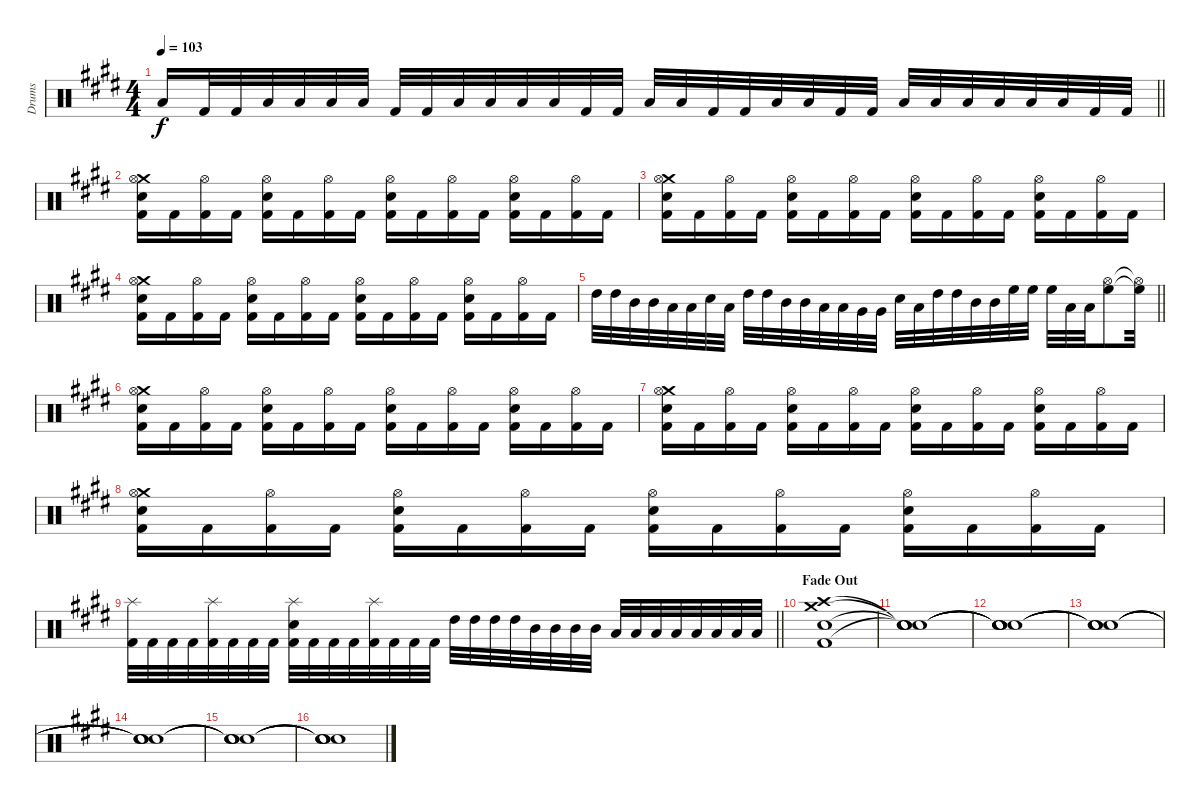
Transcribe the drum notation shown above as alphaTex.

\track ("Drums" "Drums") {instrument percussion}
\staff {score}
\articulation defaults
\ts (4 4)
\tempo 103
\clef neutral
\barLineRight lightlight
\ks c#minor "Low Tom (hit)".16{dy f} "Kick (hit) 2".32 "Kick (hit) 2".32 "Low Tom (hit)".32 "Low Tom (hit)".32 "Low Tom (hit)".32 "Low Tom (hit)".32 "Kick (hit) 2".32 "Kick (hit) 2".32 "Low Tom (hit)".32 "Low Tom (hit)".32 "Low Tom (hit)".32 "Low Tom (hit)".32 "Kick (hit) 2".32 "Kick (hit) 2".32 "Low Tom (hit)".32 "Low Tom (hit)".32 "Kick (hit) 2".32 "Kick (hit) 2".32 "Low Tom (hit)".32 "Low Tom (hit)".32 "Kick (hit) 2".32 "Kick (hit) 2".32 "Low Tom (hit)".32 "Low Tom (hit)".32 "Low Tom (hit)".32 "Low Tom (hit)".32 "Low Tom (hit)".32 "Low Tom (hit)".32 "Kick (hit) 2".32 "Kick (hit) 2".32
|
("Crash medium (hit)" "Snare (hit) 2" "Hi-Hat (open)" "Kick (hit) 2").16 "Kick (hit) 2".16 ("Hi-Hat (open)" "Kick (hit) 2").16 "Kick (hit) 2".16 ("Snare (hit) 2" "Hi-Hat (open)" "Kick (hit) 2").16 "Kick (hit) 2".16 ("Hi-Hat (open)" "Kick (hit) 2").16 "Kick (hit) 2".16 ("Snare (hit) 2" "Hi-Hat (open)" "Kick (hit) 2").16 "Kick (hit) 2".16 ("Hi-Hat (open)" "Kick (hit) 2").16 "Kick (hit) 2".16 ("Snare (hit) 2" "Hi-Hat (open)" "Kick (hit) 2").16 "Kick (hit) 2".16 ("Hi-Hat (open)" "Kick (hit) 2").16 "Kick (hit) 2".16 |
("Crash medium (hit)" "Snare (hit) 2" "Hi-Hat (open)" "Kick (hit) 2").16 "Kick (hit) 2".16 ("Hi-Hat (open)" "Kick (hit) 2").16 "Kick (hit) 2".16 ("Snare (hit) 2" "Hi-Hat (open)" "Kick (hit) 2").16 "Kick (hit) 2".16 ("Hi-Hat (open)" "Kick (hit) 2").16 "Kick (hit) 2".16 ("Snare (hit) 2" "Hi-Hat (open)" "Kick (hit) 2").16 "Kick (hit) 2".16 ("Hi-Hat (open)" "Kick (hit) 2").16 "Kick (hit) 2".16 ("Snare (hit) 2" "Hi-Hat (open)" "Kick (hit) 2").16 "Kick (hit) 2".16 ("Hi-Hat (open)" "Kick (hit) 2").16 "Kick (hit) 2".16 |
("Crash medium (hit)" "Snare (hit) 2" "Hi-Hat (open)" "Kick (hit) 2").16 "Kick (hit) 2".16 ("Hi-Hat (open)" "Kick (hit) 2").16 "Kick (hit) 2".16 ("Snare (hit) 2" "Hi-Hat (open)" "Kick (hit) 2").16 "Kick (hit) 2".16 ("Hi-Hat (open)" "Kick (hit) 2").16 "Kick (hit) 2".16 ("Snare (hit) 2" "Hi-Hat (open)" "Kick (hit) 2").16 "Kick (hit) 2".16 ("Hi-Hat (open)" "Kick (hit) 2").16 "Kick (hit) 2".16 ("Snare (hit) 2" "Hi-Hat (open)" "Kick (hit) 2").16 "Kick (hit) 2".16 ("Hi-Hat (open)" "Kick (hit) 2").16 "Kick (hit) 2".16 |
\barLineRight lightlight "High Tom (hit)".32 "High Tom (hit)".32 "Mid Tom (hit)".32 "Mid Tom (hit)".32 "Low Tom (hit)".32 "Low Tom (hit)".32 "Snare (hit) 2".32 "Low Tom (hit)".32 "High Tom (hit)".32 "High Tom (hit)".32 "Mid Tom (hit)".32 "Mid Tom (hit)".32 "Low Tom (hit)".32 "Low Tom (hit)".32 "Very Low Tom (hit)".32 "Very Low Tom (hit)".32 "Snare (hit) 2".32 "Low Tom (hit)".32 "High Tom (hit)".32 "High Tom (hit)".32 "Mid Tom (hit)".32 "Mid Tom (hit)".32 "High Floor Tom (hit)".32 "High Floor Tom (hit)".32 "High Floor Tom (hit)".32 "Low Tom (hit)".32 "Low Tom (hit)".32
("High Floor Tom (hit)" "Hi-Hat (open)").8 ("High Floor Tom (hit)"{t} "Hi-Hat (open)"{t}).32 |
("Crash medium (hit)" "Snare (hit) 2" "Hi-Hat (open)" "Kick (hit) 2").16 "Kick (hit) 2".16 ("Hi-Hat (open)" "Kick (hit) 2").16 "Kick (hit) 2".16 ("Snare (hit) 2" "Hi-Hat (open)" "Kick (hit) 2").16 "Kick (hit) 2".16 ("Hi-Hat (open)" "Kick (hit) 2").16 "Kick (hit) 2".16 ("Snare (hit) 2" "Hi-Hat (open)" "Kick (hit) 2").16 "Kick (hit) 2".16 ("Hi-Hat (open)" "Kick (hit) 2").16 "Kick (hit) 2".16 ("Snare (hit) 2" "Hi-Hat (open)" "Kick (hit) 2").16 "Kick (hit) 2".16 ("Hi-Hat (open)" "Kick (hit) 2").16 "Kick (hit) 2".16 |
("Crash medium (hit)" "Snare (hit) 2" "Hi-Hat (open)" "Kick (hit) 2").16 "Kick (hit) 2".16 ("Hi-Hat (open)" "Kick (hit) 2").16 "Kick (hit) 2".16 ("Snare (hit) 2" "Hi-Hat (open)" "Kick (hit) 2").16 "Kick (hit) 2".16 ("Hi-Hat (open)" "Kick (hit) 2").16 "Kick (hit) 2".16 ("Snare (hit) 2" "Hi-Hat (open)" "Kick (hit) 2").16 "Kick (hit) 2".16 ("Hi-Hat (open)" "Kick (hit) 2").16 "Kick (hit) 2".16 ("Snare (hit) 2" "Hi-Hat (open)" "Kick (hit) 2").16 "Kick (hit) 2".16 ("Hi-Hat (open)" "Kick (hit) 2").16 "Kick (hit) 2".16 |
("Crash medium (hit)" "Snare (hit) 2" "Hi-Hat (open)" "Kick (hit) 2").16 "Kick (hit) 2".16 ("Hi-Hat (open)" "Kick (hit) 2").16 "Kick (hit) 2".16 ("Snare (hit) 2" "Hi-Hat (open)" "Kick (hit) 2").16 "Kick (hit) 2".16 ("Hi-Hat (open)" "Kick (hit) 2").16 "Kick (hit) 2".16 ("Snare (hit) 2" "Hi-Hat (open)" "Kick (hit) 2").16 "Kick (hit) 2".16 ("Hi-Hat (open)" "Kick (hit) 2").16 "Kick (hit) 2".16 ("Snare (hit) 2" "Hi-Hat (open)" "Kick (hit) 2").16 "Kick (hit) 2".16 ("Hi-Hat (open)" "Kick (hit) 2").16 "Kick (hit) 2".16 |
\barLineRight lightlight
("Splash (hit)" "Kick (hit) 2").32 "Kick (hit) 2".32 "Kick (hit) 2".32 "Kick (hit) 2".32 ("Splash (hit)" "Kick (hit) 2").32 "Kick (hit) 2".32 "Kick (hit) 2".32 "Kick (hit) 2".32 ("Splash (hit)" "Snare (hit) 2" "Kick (hit) 2").32 "Kick (hit) 2".32 "Kick (hit) 2".32 "Kick (hit) 2".32 ("Splash (hit)" "Kick (hit) 2").32 "Kick (hit) 2".32 "Kick (hit) 2".32 "Kick (hit) 2".32 "High Tom (hit)".32 "High Tom (hit)".32 "High Tom (hit)".32 "High Tom (hit)".32 "Mid Tom (hit)".32 "Mid Tom (hit)".32 "Mid Tom (hit)".32 "Mid Tom (hit)".32 "Low Tom (hit)".32 "Low Tom (hit)".32 "Low Tom (hit)".32 "Low Tom (hit)".32 "Low Floor Tom (hit)".32 "Low Floor Tom (hit)".32 "Low Floor Tom (hit)".32 "Low Floor Tom (hit)".32 |
\section ("" "Fade Out")
("Crash medium (hit)" "Crash high (hit)" "Snare (hit) 2" "Kick (hit) 2").1 |
("Snare (hit)"{t} "Snare (hit)"{t} "Snare (hit)"{t} "Snare (hit)"{t}).1 |
("Snare (hit)"{t} "Snare (hit)"{t} "Snare (hit)"{t} "Snare (hit)"{t}).1 |
("Snare (hit)"{t} "Snare (hit)"{t} "Snare (hit)"{t} "Snare (hit)"{t}).1 |
("Snare (hit)"{t} "Snare (hit)"{t} "Snare (hit)"{t} "Snare (hit)"{t}).1 |
("Snare (hit)"{t} "Snare (hit)"{t} "Snare (hit)"{t} "Snare (hit)"{t}).1 |
("Snare (hit)"{t} "Snare (hit)"{t} "Snare (hit)"{t} "Snare (hit)"{t}).1
